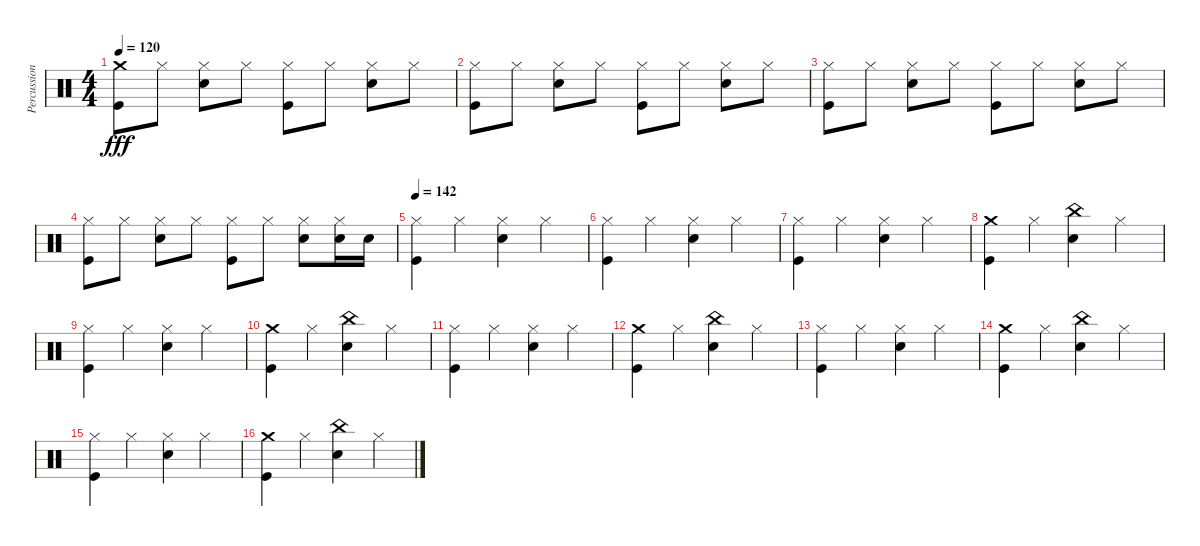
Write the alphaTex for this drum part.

\track ("Percussions" "Percussion") {instrument percussion}
\staff {score}
\articulation defaults
\ts (4 4)
\tempo 120
\clef neutral
\ks c
("Crash medium (hit)" "Kick (hit)").8{dy fff} "Hi-Hat (closed)".8 ("Hi-Hat (closed)" "Snare (hit) 2").8 "Hi-Hat (closed)".8 ("Hi-Hat (closed)" "Kick (hit)").8 "Hi-Hat (closed)".8 ("Hi-Hat (closed)" "Snare (hit) 2").8 "Hi-Hat (closed)".8 |
("Hi-Hat (closed)" "Kick (hit)").8 "Hi-Hat (closed)".8 ("Hi-Hat (closed)" "Snare (hit) 2").8 "Hi-Hat (closed)".8 ("Hi-Hat (closed)" "Kick (hit)").8 "Hi-Hat (closed)".8 ("Hi-Hat (closed)" "Snare (hit) 2").8 "Hi-Hat (closed)".8 |
("Hi-Hat (closed)" "Kick (hit)").8 "Hi-Hat (closed)".8 ("Hi-Hat (closed)" "Snare (hit) 2").8 "Hi-Hat (closed)".8 ("Hi-Hat (closed)" "Kick (hit)").8 "Hi-Hat (closed)".8 ("Hi-Hat (closed)" "Snare (hit) 2").8 "Hi-Hat (closed)".8 |
("Hi-Hat (closed)" "Kick (hit)").8 "Hi-Hat (closed)".8 ("Hi-Hat (closed)" "Snare (hit) 2").8 "Hi-Hat (closed)".8 ("Hi-Hat (closed)" "Kick (hit)").8 "Hi-Hat (closed)".8 ("Hi-Hat (closed)" "Snare (hit) 2").8 ("Hi-Hat (closed)" "Snare (hit) 2").16 "Snare (hit) 2".16 |
\tempo 142
("Hi-Hat (closed)" "Kick (hit)").4 "Hi-Hat (closed)".4 ("Hi-Hat (closed)" "Snare (hit) 2").4 "Hi-Hat (closed)".4 |
("Hi-Hat (closed)" "Kick (hit)").4 "Hi-Hat (closed)".4 ("Hi-Hat (closed)" "Snare (hit) 2").4 "Hi-Hat (closed)".4 |
("Hi-Hat (closed)" "Kick (hit)").4 "Hi-Hat (closed)".4 ("Hi-Hat (closed)" "Snare (hit) 2").4 "Hi-Hat (closed)".4 |
("Crash medium (hit)" "Kick (hit)").4 "Hi-Hat (closed)".4 ("China (hit)" "Snare (hit) 2").4 "Hi-Hat (closed)".4 |
("Hi-Hat (closed)" "Kick (hit)").4 "Hi-Hat (closed)".4 ("Hi-Hat (closed)" "Snare (hit) 2").4 "Hi-Hat (closed)".4 |
("Crash medium (hit)" "Kick (hit)").4 "Hi-Hat (closed)".4 ("China (hit)" "Snare (hit) 2").4 "Hi-Hat (closed)".4 |
("Hi-Hat (closed)" "Kick (hit)").4 "Hi-Hat (closed)".4 ("Hi-Hat (closed)" "Snare (hit) 2").4 "Hi-Hat (closed)".4 |
("Crash medium (hit)" "Kick (hit)").4 "Hi-Hat (closed)".4 ("China (hit)" "Snare (hit) 2").4 "Hi-Hat (closed)".4 |
("Hi-Hat (closed)" "Kick (hit)").4 "Hi-Hat (closed)".4 ("Hi-Hat (closed)" "Snare (hit) 2").4 "Hi-Hat (closed)".4 |
("Crash medium (hit)" "Kick (hit)").4 "Hi-Hat (closed)".4 ("China (hit)" "Snare (hit) 2").4 "Hi-Hat (closed)".4 |
("Hi-Hat (closed)" "Kick (hit)").4 "Hi-Hat (closed)".4 ("Hi-Hat (closed)" "Snare (hit) 2").4 "Hi-Hat (closed)".4 |
("Crash medium (hit)" "Kick (hit)").4 "Hi-Hat (closed)".4 ("China (hit)" "Snare (hit) 2").4 "Hi-Hat (closed)".4
